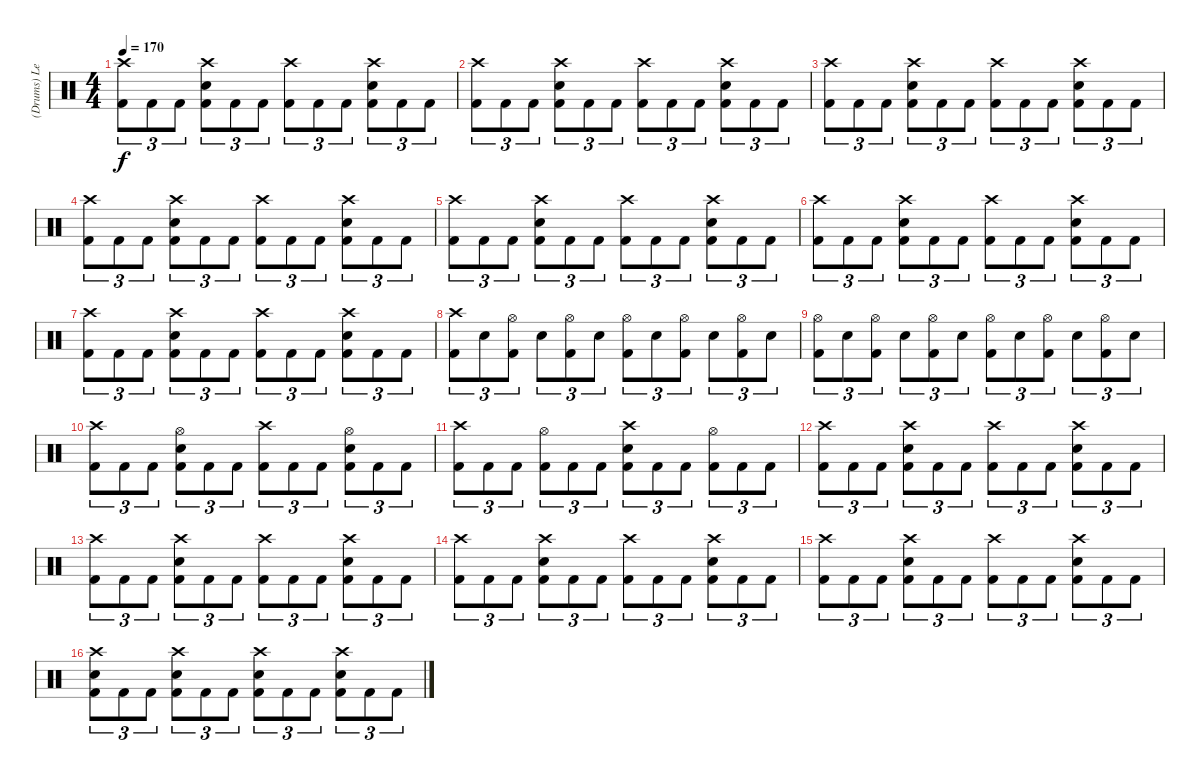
\track ("(Drums) Leche" "(Drums) Le") {instrument percussion}
\staff {score}
\articulation defaults
\ts (4 4)
\tempo 170
\clef neutral
\ks c
("Crash high (hit)" "Kick (hit) 2").8{tu (3 2) dy f} "Kick (hit) 2".8{tu (3 2)} "Kick (hit) 2".8{tu (3 2)} ("Crash high (hit)" "Electric Snare (hit)" "Kick (hit) 2").8{tu (3 2)} "Kick (hit) 2".8{tu (3 2)} "Kick (hit) 2".8{tu (3 2)} ("Crash high (hit)" "Kick (hit) 2").8{tu (3 2)} "Kick (hit) 2".8{tu (3 2)} "Kick (hit) 2".8{tu (3 2)} ("Crash high (hit)" "Electric Snare (hit)" "Kick (hit) 2").8{tu (3 2)} "Kick (hit) 2".8{tu (3 2)} "Kick (hit) 2".8{tu (3 2)} |
("Crash high (hit)" "Kick (hit) 2").8{tu (3 2)} "Kick (hit) 2".8{tu (3 2)} "Kick (hit) 2".8{tu (3 2)} ("Crash high (hit)" "Electric Snare (hit)" "Kick (hit) 2").8{tu (3 2)} "Kick (hit) 2".8{tu (3 2)} "Kick (hit) 2".8{tu (3 2)} ("Crash high (hit)" "Kick (hit) 2").8{tu (3 2)} "Kick (hit) 2".8{tu (3 2)} "Kick (hit) 2".8{tu (3 2)} ("Crash high (hit)" "Electric Snare (hit)" "Kick (hit) 2").8{tu (3 2)} "Kick (hit) 2".8{tu (3 2)} "Kick (hit) 2".8{tu (3 2)} |
("Crash high (hit)" "Kick (hit) 2").8{tu (3 2)} "Kick (hit) 2".8{tu (3 2)} "Kick (hit) 2".8{tu (3 2)} ("Crash high (hit)" "Electric Snare (hit)" "Kick (hit) 2").8{tu (3 2)} "Kick (hit) 2".8{tu (3 2)} "Kick (hit) 2".8{tu (3 2)} ("Crash high (hit)" "Kick (hit) 2").8{tu (3 2)} "Kick (hit) 2".8{tu (3 2)} "Kick (hit) 2".8{tu (3 2)} ("Crash high (hit)" "Electric Snare (hit)" "Kick (hit) 2").8{tu (3 2)} "Kick (hit) 2".8{tu (3 2)} "Kick (hit) 2".8{tu (3 2)} |
("Crash high (hit)" "Kick (hit) 2").8{tu (3 2)} "Kick (hit) 2".8{tu (3 2)} "Kick (hit) 2".8{tu (3 2)} ("Crash high (hit)" "Electric Snare (hit)" "Kick (hit) 2").8{tu (3 2)} "Kick (hit) 2".8{tu (3 2)} "Kick (hit) 2".8{tu (3 2)} ("Crash high (hit)" "Kick (hit) 2").8{tu (3 2)} "Kick (hit) 2".8{tu (3 2)} "Kick (hit) 2".8{tu (3 2)} ("Crash high (hit)" "Electric Snare (hit)" "Kick (hit) 2").8{tu (3 2)} "Kick (hit) 2".8{tu (3 2)} "Kick (hit) 2".8{tu (3 2)} |
("Crash high (hit)" "Kick (hit) 2").8{tu (3 2)} "Kick (hit) 2".8{tu (3 2)} "Kick (hit) 2".8{tu (3 2)} ("Crash high (hit)" "Electric Snare (hit)" "Kick (hit) 2").8{tu (3 2)} "Kick (hit) 2".8{tu (3 2)} "Kick (hit) 2".8{tu (3 2)} ("Crash high (hit)" "Kick (hit) 2").8{tu (3 2)} "Kick (hit) 2".8{tu (3 2)} "Kick (hit) 2".8{tu (3 2)} ("Crash high (hit)" "Electric Snare (hit)" "Kick (hit) 2").8{tu (3 2)} "Kick (hit) 2".8{tu (3 2)} "Kick (hit) 2".8{tu (3 2)} |
("Crash high (hit)" "Kick (hit) 2").8{tu (3 2)} "Kick (hit) 2".8{tu (3 2)} "Kick (hit) 2".8{tu (3 2)} ("Crash high (hit)" "Electric Snare (hit)" "Kick (hit) 2").8{tu (3 2)} "Kick (hit) 2".8{tu (3 2)} "Kick (hit) 2".8{tu (3 2)} ("Crash high (hit)" "Kick (hit) 2").8{tu (3 2)} "Kick (hit) 2".8{tu (3 2)} "Kick (hit) 2".8{tu (3 2)} ("Crash high (hit)" "Electric Snare (hit)" "Kick (hit) 2").8{tu (3 2)} "Kick (hit) 2".8{tu (3 2)} "Kick (hit) 2".8{tu (3 2)} |
("Crash high (hit)" "Kick (hit) 2").8{tu (3 2)} "Kick (hit) 2".8{tu (3 2)} "Kick (hit) 2".8{tu (3 2)} ("Crash high (hit)" "Electric Snare (hit)" "Kick (hit) 2").8{tu (3 2)} "Kick (hit) 2".8{tu (3 2)} "Kick (hit) 2".8{tu (3 2)} ("Crash high (hit)" "Kick (hit) 2").8{tu (3 2)} "Kick (hit) 2".8{tu (3 2)} "Kick (hit) 2".8{tu (3 2)} ("Crash high (hit)" "Electric Snare (hit)" "Kick (hit) 2").8{tu (3 2)} "Kick (hit) 2".8{tu (3 2)} "Kick (hit) 2".8{tu (3 2)} |
("Crash high (hit)" "Kick (hit) 2").8{tu (3 2)} "Electric Snare (hit)".8{tu (3 2)} ("Hi-Hat (open)" "Kick (hit) 2").8{tu (3 2)} "Electric Snare (hit)".8{tu (3 2)} ("Hi-Hat (open)" "Kick (hit) 2").8{tu (3 2)} "Electric Snare (hit)".8{tu (3 2)} ("Hi-Hat (open)" "Kick (hit) 2").8{tu (3 2)} "Electric Snare (hit)".8{tu (3 2)} ("Hi-Hat (open)" "Kick (hit) 2").8{tu (3 2)} "Electric Snare (hit)".8{tu (3 2)} ("Hi-Hat (open)" "Kick (hit) 2").8{tu (3 2)} "Electric Snare (hit)".8{tu (3 2)} |
("Hi-Hat (open)" "Kick (hit) 2").8{tu (3 2)} "Electric Snare (hit)".8{tu (3 2)} ("Hi-Hat (open)" "Kick (hit) 2").8{tu (3 2)} "Electric Snare (hit)".8{tu (3 2)} ("Hi-Hat (open)" "Kick (hit) 2").8{tu (3 2)} "Electric Snare (hit)".8{tu (3 2)} ("Hi-Hat (open)" "Kick (hit) 2").8{tu (3 2)} "Electric Snare (hit)".8{tu (3 2)} ("Hi-Hat (open)" "Kick (hit) 2").8{tu (3 2)} "Electric Snare (hit)".8{tu (3 2)} ("Hi-Hat (open)" "Kick (hit) 2").8{tu (3 2)} "Electric Snare (hit)".8{tu (3 2)} |
("Crash high (hit)" "Kick (hit) 2").8{tu (3 2)} "Kick (hit) 2".8{tu (3 2)} "Kick (hit) 2".8{tu (3 2)} ("Hi-Hat (open)" "Electric Snare (hit)" "Kick (hit) 2").8{tu (3 2)} "Kick (hit) 2".8{tu (3 2)} "Kick (hit) 2".8{tu (3 2)} ("Crash high (hit)" "Kick (hit) 2").8{tu (3 2)} "Kick (hit) 2".8{tu (3 2)} "Kick (hit) 2".8{tu (3 2)} ("Hi-Hat (open)" "Electric Snare (hit)" "Kick (hit) 2").8{tu (3 2)} "Kick (hit) 2".8{tu (3 2)} "Kick (hit) 2".8{tu (3 2)} |
("Crash high (hit)" "Kick (hit) 2").8{tu (3 2)} "Kick (hit) 2".8{tu (3 2)} "Kick (hit) 2".8{tu (3 2)} ("Hi-Hat (open)" "Kick (hit) 2").8{tu (3 2)} "Kick (hit) 2".8{tu (3 2)} "Kick (hit) 2".8{tu (3 2)} ("Crash high (hit)" "Electric Snare (hit)" "Kick (hit) 2").8{tu (3 2)} "Kick (hit) 2".8{tu (3 2)} "Kick (hit) 2".8{tu (3 2)} ("Hi-Hat (open)" "Kick (hit) 2").8{tu (3 2)} "Kick (hit) 2".8{tu (3 2)} "Kick (hit) 2".8{tu (3 2)} |
("Crash high (hit)" "Kick (hit) 2").8{tu (3 2)} "Kick (hit) 2".8{tu (3 2)} "Kick (hit) 2".8{tu (3 2)} ("Crash high (hit)" "Electric Snare (hit)" "Kick (hit) 2").8{tu (3 2)} "Kick (hit) 2".8{tu (3 2)} "Kick (hit) 2".8{tu (3 2)} ("Crash high (hit)" "Kick (hit) 2").8{tu (3 2)} "Kick (hit) 2".8{tu (3 2)} "Kick (hit) 2".8{tu (3 2)} ("Crash high (hit)" "Electric Snare (hit)" "Kick (hit) 2").8{tu (3 2)} "Kick (hit) 2".8{tu (3 2)} "Kick (hit) 2".8{tu (3 2)} |
("Crash high (hit)" "Kick (hit) 2").8{tu (3 2)} "Kick (hit) 2".8{tu (3 2)} "Kick (hit) 2".8{tu (3 2)} ("Crash high (hit)" "Electric Snare (hit)" "Kick (hit) 2").8{tu (3 2)} "Kick (hit) 2".8{tu (3 2)} "Kick (hit) 2".8{tu (3 2)} ("Crash high (hit)" "Kick (hit) 2").8{tu (3 2)} "Kick (hit) 2".8{tu (3 2)} "Kick (hit) 2".8{tu (3 2)} ("Crash high (hit)" "Electric Snare (hit)" "Kick (hit) 2").8{tu (3 2)} "Kick (hit) 2".8{tu (3 2)} "Kick (hit) 2".8{tu (3 2)} |
("Crash high (hit)" "Kick (hit) 2").8{tu (3 2)} "Kick (hit) 2".8{tu (3 2)} "Kick (hit) 2".8{tu (3 2)} ("Crash high (hit)" "Electric Snare (hit)" "Kick (hit) 2").8{tu (3 2)} "Kick (hit) 2".8{tu (3 2)} "Kick (hit) 2".8{tu (3 2)} ("Crash high (hit)" "Kick (hit) 2").8{tu (3 2)} "Kick (hit) 2".8{tu (3 2)} "Kick (hit) 2".8{tu (3 2)} ("Crash high (hit)" "Electric Snare (hit)" "Kick (hit) 2").8{tu (3 2)} "Kick (hit) 2".8{tu (3 2)} "Kick (hit) 2".8{tu (3 2)} |
("Crash high (hit)" "Kick (hit) 2").8{tu (3 2)} "Kick (hit) 2".8{tu (3 2)} "Kick (hit) 2".8{tu (3 2)} ("Crash high (hit)" "Electric Snare (hit)" "Kick (hit) 2").8{tu (3 2)} "Kick (hit) 2".8{tu (3 2)} "Kick (hit) 2".8{tu (3 2)} ("Crash high (hit)" "Kick (hit) 2").8{tu (3 2)} "Kick (hit) 2".8{tu (3 2)} "Kick (hit) 2".8{tu (3 2)} ("Crash high (hit)" "Electric Snare (hit)" "Kick (hit) 2").8{tu (3 2)} "Kick (hit) 2".8{tu (3 2)} "Kick (hit) 2".8{tu (3 2)} |
("Crash high (hit)" "Electric Snare (hit)" "Kick (hit) 2").8{tu (3 2)} "Kick (hit) 2".8{tu (3 2)} "Kick (hit) 2".8{tu (3 2)} ("Crash high (hit)" "Electric Snare (hit)" "Kick (hit) 2").8{tu (3 2)} "Kick (hit) 2".8{tu (3 2)} "Kick (hit) 2".8{tu (3 2)} ("Crash high (hit)" "Electric Snare (hit)" "Kick (hit) 2").8{tu (3 2)} "Kick (hit) 2".8{tu (3 2)} "Kick (hit) 2".8{tu (3 2)} ("Crash high (hit)" "Electric Snare (hit)" "Kick (hit) 2").8{tu (3 2)} "Kick (hit) 2".8{tu (3 2)} "Kick (hit) 2".8{tu (3 2)}
